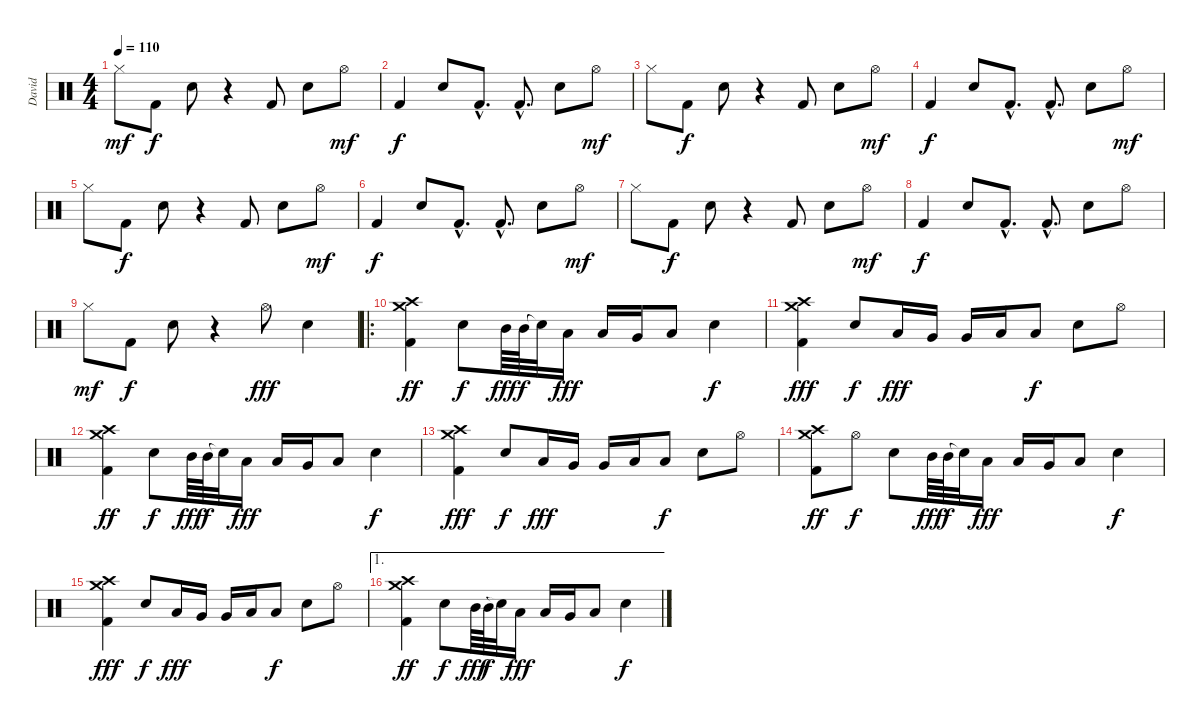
\track ("David" "David") {instrument percussion}
\staff {score}
\articulation defaults
\ts (4 4)
\tempo 110
\clef neutral
\ks c "Hi-Hat (closed)".8{dy mf} "Kick (hit) 2".8{dy f} "Snare (hit) 2".8
r.4 "Kick (hit) 2".8 "Snare (hit) 2".8 "Hi-Hat (open)".8{dy mf} |
"Kick (hit) 2".4{dy f} "Snare (hit) 2".8 "Kick (hit) 2"{hac}.8{d} "Kick (hit) 2"{hac}.8{d} "Snare (hit) 2".8 "Hi-Hat (open)".8{dy mf} |
"Hi-Hat (closed)".8 "Kick (hit) 2".8{dy f} "Snare (hit) 2".8 r.4 "Kick (hit) 2".8 "Snare (hit) 2".8 "Hi-Hat (open)".8{dy mf} |
"Kick (hit) 2".4{dy f} "Snare (hit) 2".8 "Kick (hit) 2"{hac}.8{d} "Kick (hit) 2"{hac}.8{d} "Snare (hit) 2".8 "Hi-Hat (open)".8{dy mf} |
"Hi-Hat (closed)".8 "Kick (hit) 2".8{dy f} "Snare (hit) 2".8 r.4 "Kick (hit) 2".8 "Snare (hit) 2".8 "Hi-Hat (open)".8{dy mf} |
"Kick (hit) 2".4{dy f} "Snare (hit) 2".8 "Kick (hit) 2"{hac}.8{d} "Kick (hit) 2"{hac}.8{d} "Snare (hit) 2".8 "Hi-Hat (open)".8{dy mf} |
"Hi-Hat (closed)".8 "Kick (hit) 2".8{dy f} "Snare (hit) 2".8 r.4 "Kick (hit) 2".8 "Snare (hit) 2".8 "Hi-Hat (open)".8{dy mf} |
"Kick (hit) 2".4{dy f} "Snare (hit) 2".8 "Kick (hit) 2"{hac}.8{d} "Kick (hit) 2"{hac}.8{d} "Snare (hit) 2".8 "Hi-Hat (open)".8 |
"Hi-Hat (closed)".8{dy mf} "Kick (hit) 2".8{dy f} "Snare (hit) 2".8 r.4 "Hi-Hat (open)".8{dy fff} "Snare (hit) 2".4 |
\ro
("Crash medium (hit)" "Crash high (hit)" "Kick (hit) 2").4{dy ff} "Snare (hit) 2".8{dy f} "Mid Tom (hit)".64{dy fff} "Mid Tom (hit)".64{dy f} "Snare (hit)"{t}.32 "Low Tom (hit)".16{dy fff} "Low Tom (hit)".16 "Very Low Tom (hit)".16 "Low Floor Tom (hit)".8 "Snare (hit) 2".4{dy f} |
("Crash medium (hit)" "Crash high (hit)" "Kick (hit) 2").4{dy fff} "Snare (hit) 2".8{dy f} "Low Tom (hit)".16{dy fff} "Very Low Tom (hit)".16 "Very Low Tom (hit)".16 "Low Floor Tom (hit)".16 "Low Floor Tom (hit)".8{dy f} "Snare (hit) 2".8 "Hi-Hat (open)".8 |
("Crash medium (hit)" "Crash high (hit)" "Kick (hit) 2").4{dy ff} "Snare (hit) 2".8{dy f} "Mid Tom (hit)".64{dy fff} "Mid Tom (hit)".64{dy f} "Snare (hit)"{t}.32 "Low Tom (hit)".16{dy fff} "Low Tom (hit)".16 "Very Low Tom (hit)".16 "Low Floor Tom (hit)".8 "Snare (hit) 2".4{dy f} |
("Crash medium (hit)" "Crash high (hit)" "Kick (hit) 2").4{dy fff} "Snare (hit) 2".8{dy f} "Low Tom (hit)".16{dy fff} "Very Low Tom (hit)".16 "Very Low Tom (hit)".16 "Low Floor Tom (hit)".16 "Low Floor Tom (hit)".8{dy f} "Snare (hit) 2".8 "Hi-Hat (open)".8 |
("Crash medium (hit)" "Crash high (hit)" "Kick (hit) 2").8{dy ff} "Hi-Hat (open)".8{dy f} "Snare (hit) 2".8 "Mid Tom (hit)".64{dy fff} "Mid Tom (hit)".64{dy f} "Snare (hit)"{t}.32 "Low Tom (hit)".16{dy fff} "Low Tom (hit)".16 "Very Low Tom (hit)".16 "Low Floor Tom (hit)".8 "Snare (hit) 2".4{dy f} |
("Crash medium (hit)" "Crash high (hit)" "Kick (hit) 2").4{dy fff} "Snare (hit) 2".8{dy f} "Low Tom (hit)".16{dy fff} "Very Low Tom (hit)".16 "Very Low Tom (hit)".16 "Low Floor Tom (hit)".16 "Low Floor Tom (hit)".8{dy f} "Snare (hit) 2".8 "Hi-Hat (open)".8 |
\ae 1
("Crash medium (hit)" "Crash high (hit)" "Kick (hit) 2").4{dy ff} "Snare (hit) 2".8{dy f} "Mid Tom (hit)".64{dy fff} "Mid Tom (hit)".64{dy f} "Snare (hit)"{t}.32 "Low Tom (hit)".16{dy fff} "Low Tom (hit)".16 "Very Low Tom (hit)".16 "Low Floor Tom (hit)".8 "Snare (hit) 2".4{dy f}
